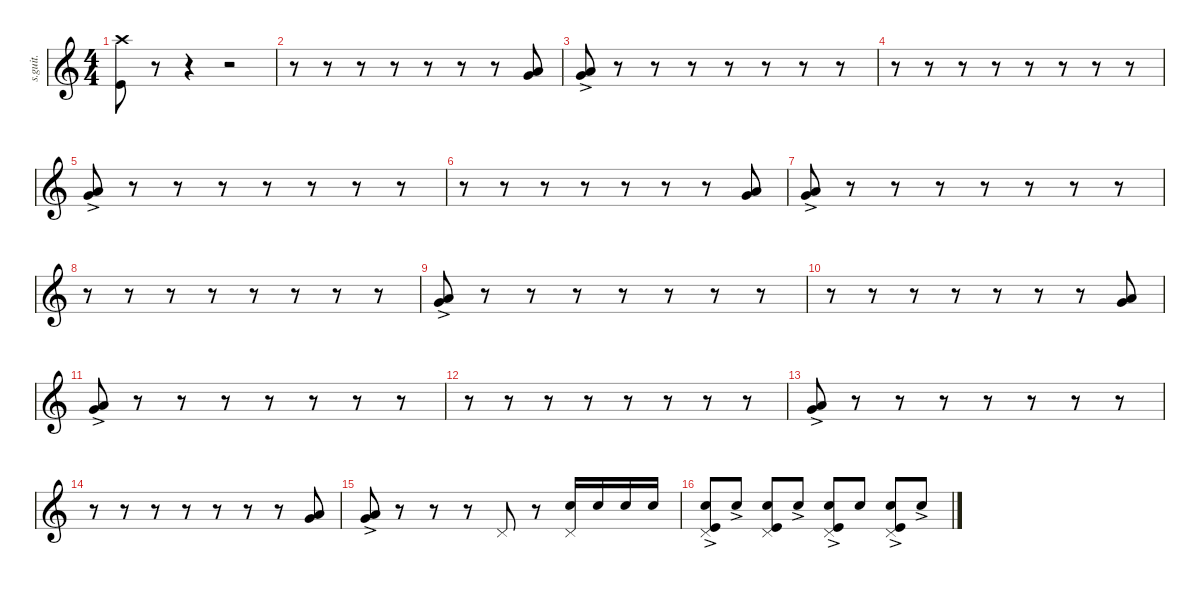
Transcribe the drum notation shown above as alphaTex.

\defaultSystemsLayout 4
\hideDynamics
\bracketExtendMode nobrackets
\track ("Matt Halpern" "s.guit.") {instrument percussion}
\staff {score}
\articulation defaults
\ts (4 4)
\tempo (213 hide)
\clef g2
\ks c
("Crash high (hit)" "Kick (hit)").8{lyrics (0 "") lyrics (1 "") lyrics (2 "") lyrics (3 "") lyrics (4 "") dy mf} r.8 r.4 r.2 |
r.8 r.8 r.8 r.8 r.8 r.8 r.8 ("Very Low Tom (hit)" "Low Tom (hit)").8{lyrics (0 "") lyrics (1 "") lyrics (2 "") lyrics (3 "") lyrics (4 "")} |
("Low Tom (hit)"{ac} "Very Low Tom (hit)"{ac}).8{lyrics (0 "") lyrics (1 "") lyrics (2 "") lyrics (3 "") lyrics (4 "")} r.8 r.8 r.8 r.8 r.8 r.8 r.8 |
r.8 r.8 r.8 r.8 r.8 r.8 r.8 r.8 |
("Low Tom (hit)"{ac} "Very Low Tom (hit)"{ac}).8{lyrics (0 "") lyrics (1 "") lyrics (2 "") lyrics (3 "") lyrics (4 "")} r.8 r.8 r.8 r.8 r.8 r.8 r.8 |
r.8 r.8 r.8 r.8 r.8 r.8 r.8 ("Very Low Tom (hit)" "Low Tom (hit)").8{lyrics (0 "") lyrics (1 "") lyrics (2 "") lyrics (3 "") lyrics (4 "")} |
("Low Tom (hit)"{ac} "Very Low Tom (hit)"{ac}).8{lyrics (0 "") lyrics (1 "") lyrics (2 "") lyrics (3 "") lyrics (4 "")} r.8 r.8 r.8 r.8 r.8 r.8 r.8 |
r.8 r.8 r.8 r.8 r.8 r.8 r.8 r.8 |
("Low Tom (hit)"{ac} "Very Low Tom (hit)"{ac}).8{lyrics (0 "") lyrics (1 "") lyrics (2 "") lyrics (3 "") lyrics (4 "")} r.8 r.8 r.8 r.8 r.8 r.8 r.8 |
r.8 r.8 r.8 r.8 r.8 r.8 r.8 ("Very Low Tom (hit)" "Low Tom (hit)").8{lyrics (0 "") lyrics (1 "") lyrics (2 "") lyrics (3 "") lyrics (4 "")} |
("Low Tom (hit)"{ac} "Very Low Tom (hit)"{ac}).8{lyrics (0 "") lyrics (1 "") lyrics (2 "") lyrics (3 "") lyrics (4 "")} r.8 r.8 r.8 r.8 r.8 r.8 r.8 |
r.8 r.8 r.8 r.8 r.8 r.8 r.8 r.8 |
("Low Tom (hit)"{ac} "Very Low Tom (hit)"{ac}).8{lyrics (0 "") lyrics (1 "") lyrics (2 "") lyrics (3 "") lyrics (4 "")} r.8 r.8 r.8 r.8 r.8 r.8 r.8 |
r.8 r.8 r.8 r.8 r.8 r.8 r.8 ("Very Low Tom (hit)" "Low Tom (hit)").8{lyrics (0 "") lyrics (1 "") lyrics (2 "") lyrics (3 "") lyrics (4 "")} |
("Low Tom (hit)"{ac} "Very Low Tom (hit)"{ac}).8{lyrics (0 "") lyrics (1 "") lyrics (2 "") lyrics (3 "") lyrics (4 "")} r.8 r.8 r.8 "Pedal Hi-Hat (hit)".8{lyrics (0 "") lyrics (1 "") lyrics (2 "") lyrics (3 "") lyrics (4 "")} r.8 ("Pedal Hi-Hat (hit)" "Snare (hit) 2").16{lyrics (0 "") lyrics (1 "") lyrics (2 "") lyrics (3 "") lyrics (4 "")} "Snare (hit) 2".16{lyrics (0 "") lyrics (1 "") lyrics (2 "") lyrics (3 "") lyrics (4 "")} "Snare (hit) 2".16{lyrics (0 "") lyrics (1 "") lyrics (2 "") lyrics (3 "") lyrics (4 "")} "Snare (hit) 2".16{lyrics (0 "") lyrics (1 "") lyrics (2 "") lyrics (3 "") lyrics (4 "")} |
("Pedal Hi-Hat (hit)" "Snare (hit) 2"{ac} "Kick (hit)").8{lyrics (0 "") lyrics (1 "") lyrics (2 "") lyrics (3 "") lyrics (4 "")} "Snare (hit) 2"{ac}.8{lyrics (0 "") lyrics (1 "") lyrics (2 "") lyrics (3 "") lyrics (4 "")} ("Pedal Hi-Hat (hit)" "Snare (hit) 2" "Kick (hit)").8{lyrics (0 "") lyrics (1 "") lyrics (2 "") lyrics (3 "") lyrics (4 "")} "Snare (hit) 2"{ac}.8{lyrics (0 "") lyrics (1 "") lyrics (2 "") lyrics (3 "") lyrics (4 "")} ("Pedal Hi-Hat (hit)" "Snare (hit) 2"{ac} "Kick (hit)").8{lyrics (0 "") lyrics (1 "") lyrics (2 "") lyrics (3 "") lyrics (4 "")} "Snare (hit) 2".8{lyrics (0 "") lyrics (1 "") lyrics (2 "") lyrics (3 "") lyrics (4 "")} ("Pedal Hi-Hat (hit)" "Snare (hit) 2"{ac} "Kick (hit)").8{lyrics (0 "") lyrics (1 "") lyrics (2 "") lyrics (3 "") lyrics (4 "")} "Snare (hit) 2"{ac}.8{lyrics (0 "") lyrics (1 "") lyrics (2 "") lyrics (3 "") lyrics (4 "")}
